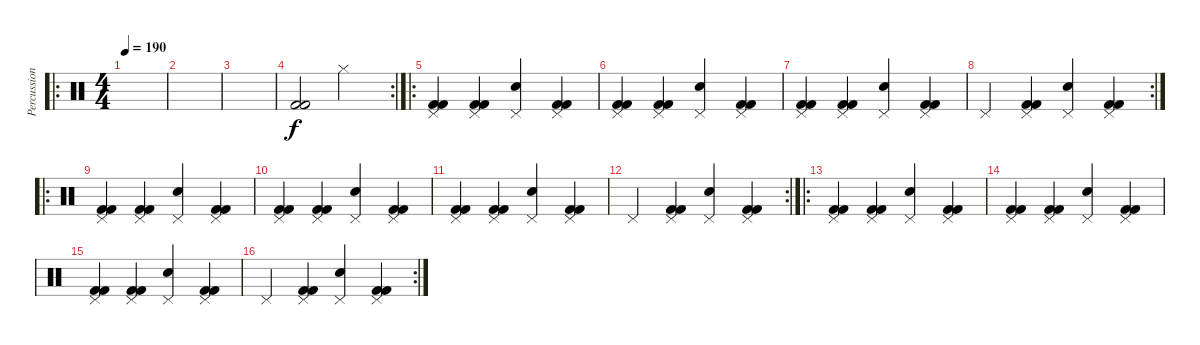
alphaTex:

\track ("Percussion" "Percussion") {instrument percussion}
\staff {score}
\articulation defaults
\ro
\ts (4 4)
\tempo 190
\clef neutral
\ks c
|
|
|
\rc 2
("Kick (hit) 2" "Kick (hit) 2").2 "Hi-Hat (closed)".2 |
\ro
("Pedal Hi-Hat (hit)" "Kick (hit) 2" "Kick (hit) 2").4 ("Pedal Hi-Hat (hit)" "Kick (hit) 2" "Kick (hit) 2").4 ("Pedal Hi-Hat (hit)" "Electric Snare (hit)").4 ("Pedal Hi-Hat (hit)" "Kick (hit) 2" "Kick (hit) 2").4 |
("Pedal Hi-Hat (hit)" "Kick (hit) 2" "Kick (hit) 2").4 ("Pedal Hi-Hat (hit)" "Kick (hit) 2" "Kick (hit) 2").4 ("Pedal Hi-Hat (hit)" "Electric Snare (hit)").4 ("Pedal Hi-Hat (hit)" "Kick (hit) 2" "Kick (hit) 2").4 |
("Pedal Hi-Hat (hit)" "Kick (hit) 2" "Kick (hit) 2").4 ("Pedal Hi-Hat (hit)" "Kick (hit) 2" "Kick (hit) 2").4 ("Pedal Hi-Hat (hit)" "Electric Snare (hit)").4 ("Pedal Hi-Hat (hit)" "Kick (hit) 2" "Kick (hit) 2").4 |
\rc 2 "Pedal Hi-Hat (hit)".4
("Pedal Hi-Hat (hit)" "Kick (hit) 2" "Kick (hit) 2").4 ("Pedal Hi-Hat (hit)" "Electric Snare (hit)").4 ("Pedal Hi-Hat (hit)" "Kick (hit) 2" "Kick (hit) 2").4 |
\ro
("Pedal Hi-Hat (hit)" "Kick (hit) 2" "Kick (hit) 2").4 ("Pedal Hi-Hat (hit)" "Kick (hit) 2" "Kick (hit) 2").4 ("Pedal Hi-Hat (hit)" "Electric Snare (hit)").4 ("Pedal Hi-Hat (hit)" "Kick (hit) 2" "Kick (hit) 2").4 |
("Pedal Hi-Hat (hit)" "Kick (hit) 2" "Kick (hit) 2").4 ("Pedal Hi-Hat (hit)" "Kick (hit) 2" "Kick (hit) 2").4 ("Pedal Hi-Hat (hit)" "Electric Snare (hit)").4 ("Pedal Hi-Hat (hit)" "Kick (hit) 2" "Kick (hit) 2").4 |
("Pedal Hi-Hat (hit)" "Kick (hit) 2" "Kick (hit) 2").4 ("Pedal Hi-Hat (hit)" "Kick (hit) 2" "Kick (hit) 2").4 ("Pedal Hi-Hat (hit)" "Electric Snare (hit)").4 ("Pedal Hi-Hat (hit)" "Kick (hit) 2" "Kick (hit) 2").4 |
\rc 2 "Pedal Hi-Hat (hit)".4
("Pedal Hi-Hat (hit)" "Kick (hit) 2" "Kick (hit) 2").4 ("Pedal Hi-Hat (hit)" "Electric Snare (hit)").4 ("Pedal Hi-Hat (hit)" "Kick (hit) 2" "Kick (hit) 2").4 |
\ro
("Pedal Hi-Hat (hit)" "Kick (hit) 2" "Kick (hit) 2").4 ("Pedal Hi-Hat (hit)" "Kick (hit) 2" "Kick (hit) 2").4 ("Pedal Hi-Hat (hit)" "Electric Snare (hit)").4 ("Pedal Hi-Hat (hit)" "Kick (hit) 2" "Kick (hit) 2").4 |
("Pedal Hi-Hat (hit)" "Kick (hit) 2" "Kick (hit) 2").4 ("Pedal Hi-Hat (hit)" "Kick (hit) 2" "Kick (hit) 2").4 ("Pedal Hi-Hat (hit)" "Electric Snare (hit)").4 ("Pedal Hi-Hat (hit)" "Kick (hit) 2" "Kick (hit) 2").4 |
("Pedal Hi-Hat (hit)" "Kick (hit) 2" "Kick (hit) 2").4 ("Pedal Hi-Hat (hit)" "Kick (hit) 2" "Kick (hit) 2").4 ("Pedal Hi-Hat (hit)" "Electric Snare (hit)").4 ("Pedal Hi-Hat (hit)" "Kick (hit) 2" "Kick (hit) 2").4 |
\rc 2 "Pedal Hi-Hat (hit)".4
("Pedal Hi-Hat (hit)" "Kick (hit) 2" "Kick (hit) 2").4 ("Pedal Hi-Hat (hit)" "Electric Snare (hit)").4 ("Pedal Hi-Hat (hit)" "Kick (hit) 2" "Kick (hit) 2").4
